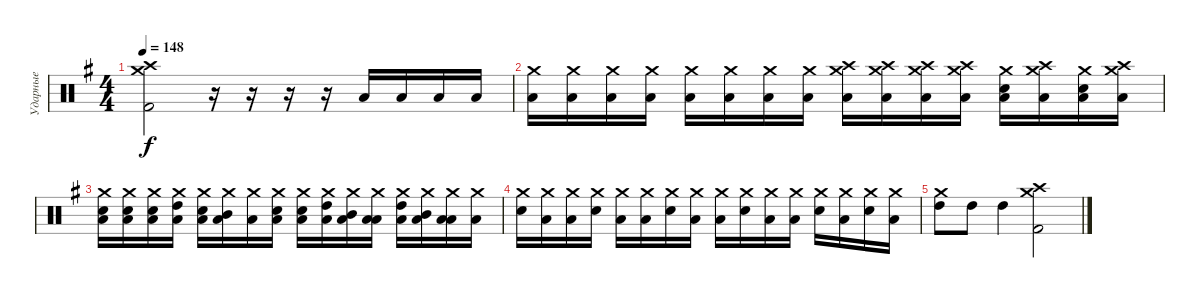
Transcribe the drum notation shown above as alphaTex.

\track ("Ударные" "Ударные") {instrument percussion}
\staff {score}
\articulation defaults
\ts (4 4)
\tempo 148
\clef neutral
\ks g
("Crash medium (hit)" "Crash high (hit)" "Kick (hit) 2").2{dy f} r.16 r.16 r.16 r.16 "Low Tom (hit)".16 "Low Tom (hit)".16 "Low Tom (hit)".16 "Low Tom (hit)".16 |
("Crash medium (hit)" "Low Tom (hit)").16 ("Crash medium (hit)" "Low Tom (hit)").16 ("Crash medium (hit)" "Low Tom (hit)").16 ("Crash medium (hit)" "Low Tom (hit)").16 ("Crash medium (hit)" "Low Tom (hit)").16 ("Crash medium (hit)" "Low Tom (hit)").16 ("Crash medium (hit)" "Low Tom (hit)").16 ("Crash medium (hit)" "Low Tom (hit)").16 ("Crash high (hit)" "Crash medium (hit)" "Low Tom (hit)").16 ("Crash high (hit)" "Crash medium (hit)" "Low Tom (hit)").16 ("Crash high (hit)" "Crash medium (hit)" "Low Tom (hit)").16 ("Crash high (hit)" "Crash medium (hit)" "Low Tom (hit)").16 ("Electric Snare (hit)" "Crash medium (hit)" "Low Tom (hit)").16 ("Crash high (hit)" "Crash medium (hit)" "Low Tom (hit)").16 ("Electric Snare (hit)" "Crash medium (hit)" "Low Tom (hit)").16 ("Crash high (hit)" "Crash medium (hit)" "Low Tom (hit)").16 |
("Electric Snare (hit)" "Crash medium (hit)" "Low Tom (hit)").16 ("Electric Snare (hit)" "Crash medium (hit)" "Low Tom (hit)").16 ("Electric Snare (hit)" "Crash medium (hit)" "Low Tom (hit)").16 ("High Tom (hit)" "Crash medium (hit)" "Low Tom (hit)").16 ("Electric Snare (hit)" "Crash medium (hit)" "Low Tom (hit)").16 ("Mid Tom (hit)" "Crash medium (hit)" "Low Tom (hit)").16 ("Crash medium (hit)" "Low Tom (hit)").16 ("Electric Snare (hit)" "Crash medium (hit)" "Low Tom (hit)").16 ("Electric Snare (hit)" "Crash medium (hit)" "Low Tom (hit)").16 ("High Tom (hit)" "Crash medium (hit)" "Low Tom (hit)").16 ("Mid Tom (hit)" "Crash medium (hit)" "Low Tom (hit)").16 ("Low Tom (hit)" "Crash medium (hit)" "Low Tom (hit)").16 ("High Tom (hit)" "Crash medium (hit)" "Low Tom (hit)").16 ("Mid Tom (hit)" "Crash medium (hit)" "Low Tom (hit)").16 ("Low Tom (hit)" "Crash medium (hit)" "Low Tom (hit)").16 ("Crash medium (hit)" "Low Tom (hit)").16 |
("Electric Snare (hit)" "Crash medium (hit)").16 ("Crash medium (hit)" "Low Tom (hit)").16 ("Crash medium (hit)" "Low Tom (hit)").16 ("Electric Snare (hit)" "Crash medium (hit)").16 ("Crash medium (hit)" "Low Tom (hit)").16 ("Crash medium (hit)" "Low Tom (hit)").16 ("Electric Snare (hit)" "Crash medium (hit)").16 ("Crash medium (hit)" "Low Tom (hit)").16 ("Crash medium (hit)" "Low Tom (hit)").16 ("Electric Snare (hit)" "Crash medium (hit)").16 ("Crash medium (hit)" "Low Tom (hit)").16 ("Crash medium (hit)" "Low Tom (hit)").16 ("Electric Snare (hit)" "Crash medium (hit)").16 ("Crash medium (hit)" "Low Tom (hit)").16 ("Electric Snare (hit)" "Crash medium (hit)").16 ("Crash medium (hit)" "Low Tom (hit)").16 |
("Crash medium (hit)" "High Tom (hit)").8 "High Tom (hit)".8 "High Tom (hit)".4 ("Crash medium (hit)" "Crash high (hit)" "Kick (hit) 2").2
